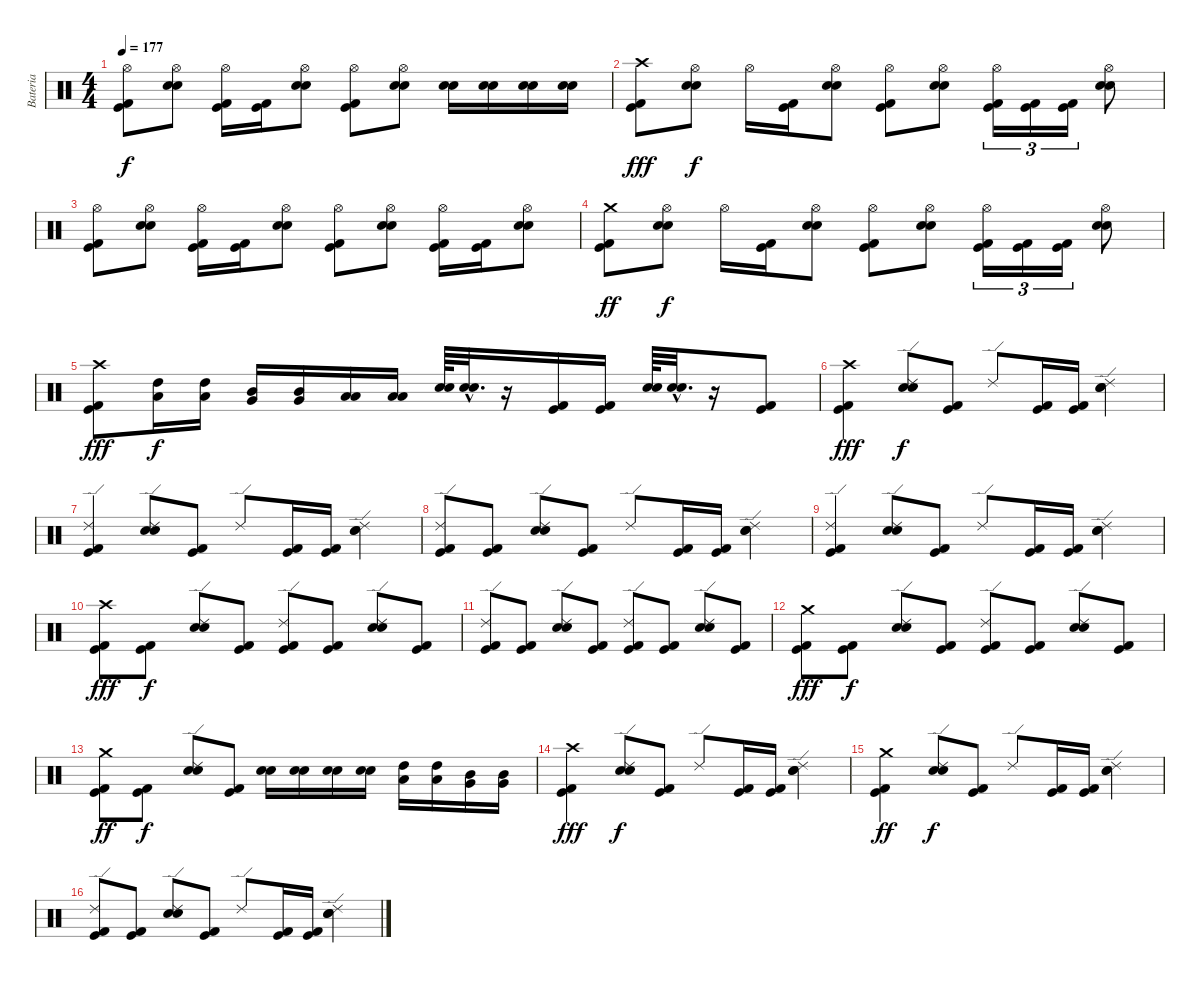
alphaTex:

\track ("Bateria" "Bateria") {instrument percussion}
\staff {score}
\articulation defaults
\ts (4 4)
\tempo 177
\clef neutral
\ks c
("Hi-Hat (open)" "Kick (hit) 2" "Kick (hit)").8{dy f} ("Hi-Hat (open)" "Electric Snare (hit)" "Snare (hit) 2").8 ("Hi-Hat (open)" "Kick (hit) 2" "Kick (hit)").16 ("Kick (hit) 2" "Kick (hit)").16 ("Hi-Hat (open)" "Electric Snare (hit)" "Snare (hit) 2").8 ("Hi-Hat (open)" "Kick (hit) 2" "Kick (hit)").8 ("Hi-Hat (open)" "Electric Snare (hit)" "Snare (hit) 2").8 ("Electric Snare (hit)" "Snare (hit) 2").16 ("Electric Snare (hit)" "Snare (hit) 2").16 ("Electric Snare (hit)" "Snare (hit) 2").16 ("Electric Snare (hit)" "Snare (hit) 2").16 |
("Crash high (hit)" "Kick (hit) 2" "Kick (hit)").8{dy fff} ("Hi-Hat (open)" "Electric Snare (hit)" "Snare (hit) 2").8{dy f} "Hi-Hat (open)".16 ("Kick (hit) 2" "Kick (hit)").16 ("Hi-Hat (open)" "Electric Snare (hit)" "Snare (hit) 2").8 ("Hi-Hat (open)" "Kick (hit) 2" "Kick (hit)").8 ("Hi-Hat (open)" "Electric Snare (hit)" "Snare (hit) 2").8 ("Hi-Hat (open)" "Kick (hit) 2" "Kick (hit)").16{tu (3 2)} ("Kick (hit) 2" "Kick (hit)").16{tu (3 2)} ("Kick (hit) 2" "Kick (hit)").16{tu (3 2)} ("Hi-Hat (open)" "Electric Snare (hit)" "Snare (hit) 2").8 |
("Hi-Hat (open)" "Kick (hit) 2" "Kick (hit)").8 ("Hi-Hat (open)" "Electric Snare (hit)" "Snare (hit) 2").8 ("Hi-Hat (open)" "Kick (hit) 2" "Kick (hit)").16 ("Kick (hit) 2" "Kick (hit)").16 ("Hi-Hat (open)" "Electric Snare (hit)" "Snare (hit) 2").8 ("Hi-Hat (open)" "Kick (hit) 2" "Kick (hit)").8 ("Hi-Hat (open)" "Electric Snare (hit)" "Snare (hit) 2").8 ("Hi-Hat (open)" "Kick (hit) 2" "Kick (hit)").16 ("Kick (hit) 2" "Kick (hit)").16 ("Hi-Hat (open)" "Electric Snare (hit)" "Snare (hit) 2").8 |
("Crash medium (hit)" "Kick (hit) 2" "Kick (hit)").8{dy ff} ("Hi-Hat (open)" "Electric Snare (hit)" "Snare (hit) 2").8{dy f} "Hi-Hat (open)".16 ("Kick (hit) 2" "Kick (hit)").16 ("Hi-Hat (open)" "Electric Snare (hit)" "Snare (hit) 2").8 ("Hi-Hat (open)" "Kick (hit) 2" "Kick (hit)").8 ("Hi-Hat (open)" "Electric Snare (hit)" "Snare (hit) 2").8 ("Hi-Hat (open)" "Kick (hit) 2" "Kick (hit)").16{tu (3 2)} ("Kick (hit) 2" "Kick (hit)").16{tu (3 2)} ("Kick (hit) 2" "Kick (hit)").16{tu (3 2)} ("Hi-Hat (open)" "Electric Snare (hit)" "Snare (hit) 2").8 |
("Crash high (hit)" "Kick (hit) 2" "Kick (hit)").8{dy fff} ("High Tom (hit)" "Low Tom (hit)").16{dy f} ("High Tom (hit)" "Low Tom (hit)").16 ("Mid Tom (hit)" "Very Low Tom (hit)").16 ("Mid Tom (hit)" "Very Low Tom (hit)").16 ("Low Tom (hit)" "Low Floor Tom (hit)").16 ("Low Tom (hit)" "Low Floor Tom (hit)").16 ("Electric Snare (hit)" "Snare (hit) 2").64 ("Electric Snare (hit)"{hac} "Snare (hit) 2"{hac}).32{d} r.16 ("Kick (hit) 2" "Kick (hit)").16 ("Kick (hit) 2" "Kick (hit)").16 ("Electric Snare (hit)" "Snare (hit) 2").64 ("Electric Snare (hit)"{hac} "Snare (hit) 2"{hac}).32{d} r.16 ("Kick (hit) 2" "Kick (hit)").8 |
("Crash high (hit)" "Kick (hit) 2" "Kick (hit)").4{dy fff} ("Ride (edge) 2" "Electric Snare (hit)" "Snare (hit) 2").8{dy f} ("Kick (hit) 2" "Kick (hit)").8 "Ride (edge) 2".8 ("Kick (hit) 2" "Kick (hit)").16 ("Kick (hit) 2" "Kick (hit)").16 ("Ride (edge) 2" "Electric Snare (hit)" "Snare (hit) 2").4 |
("Ride (edge) 2" "Kick (hit) 2" "Kick (hit)").4 ("Ride (edge) 2" "Electric Snare (hit)" "Snare (hit) 2").8 ("Kick (hit) 2" "Kick (hit)").8 "Ride (edge) 2".8 ("Kick (hit) 2" "Kick (hit)").16 ("Kick (hit) 2" "Kick (hit)").16 ("Ride (edge) 2" "Electric Snare (hit)" "Snare (hit) 2").4 |
("Ride (edge) 2" "Kick (hit) 2" "Kick (hit)").8 ("Kick (hit) 2" "Kick (hit)").8 ("Ride (edge) 2" "Electric Snare (hit)" "Snare (hit) 2").8 ("Kick (hit) 2" "Kick (hit)").8 "Ride (edge) 2".8 ("Kick (hit) 2" "Kick (hit)").16 ("Kick (hit) 2" "Kick (hit)").16 ("Ride (edge) 2" "Electric Snare (hit)" "Snare (hit) 2").4 |
("Ride (edge) 2" "Kick (hit) 2" "Kick (hit)").4 ("Ride (edge) 2" "Electric Snare (hit)" "Snare (hit) 2").8 ("Kick (hit) 2" "Kick (hit)").8 "Ride (edge) 2".8 ("Kick (hit) 2" "Kick (hit)").16 ("Kick (hit) 2" "Kick (hit)").16 ("Ride (edge) 2" "Electric Snare (hit)" "Snare (hit) 2").4 |
("Crash high (hit)" "Kick (hit) 2" "Kick (hit)").8{dy fff} ("Kick (hit) 2" "Kick (hit)").8{dy f} ("Ride (edge) 2" "Electric Snare (hit)" "Snare (hit) 2").8 ("Kick (hit) 2" "Kick (hit)").8 ("Ride (edge) 2" "Kick (hit) 2" "Kick (hit)").8 ("Kick (hit) 2" "Kick (hit)").8 ("Ride (edge) 2" "Electric Snare (hit)" "Snare (hit) 2").8 ("Kick (hit) 2" "Kick (hit)").8 |
("Ride (edge) 2" "Kick (hit) 2" "Kick (hit)").8 ("Kick (hit) 2" "Kick (hit)").8 ("Ride (edge) 2" "Electric Snare (hit)" "Snare (hit) 2").8 ("Kick (hit) 2" "Kick (hit)").8 ("Ride (edge) 2" "Kick (hit) 2" "Kick (hit)").8 ("Kick (hit) 2" "Kick (hit)").8 ("Ride (edge) 2" "Electric Snare (hit)" "Snare (hit) 2").8 ("Kick (hit) 2" "Kick (hit)").8 |
("Crash medium (hit)" "Kick (hit) 2" "Kick (hit)").8{dy fff} ("Kick (hit) 2" "Kick (hit)").8{dy f} ("Ride (edge) 2" "Electric Snare (hit)" "Snare (hit) 2").8 ("Kick (hit) 2" "Kick (hit)").8 ("Ride (edge) 2" "Kick (hit) 2" "Kick (hit)").8 ("Kick (hit) 2" "Kick (hit)").8 ("Ride (edge) 2" "Electric Snare (hit)" "Snare (hit) 2").8 ("Kick (hit) 2" "Kick (hit)").8 |
("Crash medium (hit)" "Kick (hit) 2" "Kick (hit)").8{dy ff} ("Kick (hit) 2" "Kick (hit)").8{dy f} ("Ride (edge) 2" "Electric Snare (hit)" "Snare (hit) 2").8 ("Kick (hit) 2" "Kick (hit)").8 ("Electric Snare (hit)" "Snare (hit) 2").16 ("Electric Snare (hit)" "Snare (hit) 2").16 ("Electric Snare (hit)" "Snare (hit) 2").16 ("Electric Snare (hit)" "Snare (hit) 2").16 ("High Tom (hit)" "Low Tom (hit)").16 ("High Tom (hit)" "Low Tom (hit)").16 ("Mid Tom (hit)" "Very Low Tom (hit)").16 ("Mid Tom (hit)" "Very Low Tom (hit)").16 |
("Crash high (hit)" "Kick (hit) 2" "Kick (hit)").4{dy fff} ("Ride (edge) 2" "Electric Snare (hit)" "Snare (hit) 2").8{dy f} ("Kick (hit) 2" "Kick (hit)").8 "Ride (edge) 2".8 ("Kick (hit) 2" "Kick (hit)").16 ("Kick (hit) 2" "Kick (hit)").16 ("Ride (edge) 2" "Electric Snare (hit)" "Snare (hit) 2").4 |
("Crash medium (hit)" "Kick (hit) 2" "Kick (hit)").4{dy ff} ("Ride (edge) 2" "Electric Snare (hit)" "Snare (hit) 2").8{dy f} ("Kick (hit) 2" "Kick (hit)").8 "Ride (edge) 2".8 ("Kick (hit) 2" "Kick (hit)").16 ("Kick (hit) 2" "Kick (hit)").16 ("Ride (edge) 2" "Electric Snare (hit)" "Snare (hit) 2").4 |
("Ride (edge) 2" "Kick (hit) 2" "Kick (hit)").8 ("Kick (hit) 2" "Kick (hit)").8 ("Ride (edge) 2" "Electric Snare (hit)" "Snare (hit) 2").8 ("Kick (hit) 2" "Kick (hit)").8 "Ride (edge) 2".8 ("Kick (hit) 2" "Kick (hit)").16 ("Kick (hit) 2" "Kick (hit)").16 ("Ride (edge) 2" "Electric Snare (hit)" "Snare (hit) 2").4
